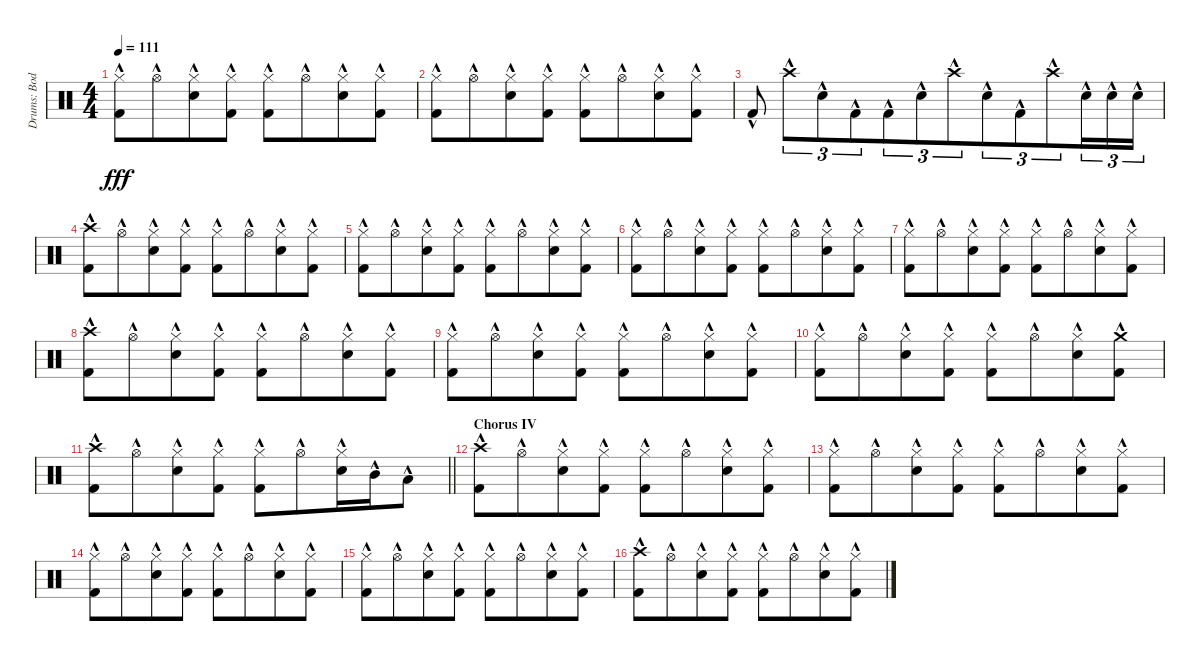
\track ("Drums: Bodo" "Drums: Bod") {instrument percussion}
\staff {score}
\articulation defaults
\ts (4 4)
\tempo 111
\clef neutral
\ks c
("Hi-Hat (closed)"{hac} "Kick (hit) 2"{hac}).8{dy fff} "Hi-Hat (open)"{hac}.8{beam merge} ("Hi-Hat (closed)"{hac} "Electric Snare (hit)"{hac}).8 ("Hi-Hat (closed)"{hac} "Kick (hit) 2"{hac}).8 ("Hi-Hat (closed)"{hac} "Kick (hit) 2"{hac}).8 "Hi-Hat (open)"{hac}.8{beam merge} ("Hi-Hat (closed)"{hac} "Electric Snare (hit)"{hac}).8 ("Hi-Hat (closed)"{hac} "Kick (hit) 2"{hac}).8 |
("Hi-Hat (closed)"{hac} "Kick (hit) 2"{hac}).8 "Hi-Hat (open)"{hac}.8{beam merge} ("Hi-Hat (closed)"{hac} "Electric Snare (hit)"{hac}).8 ("Hi-Hat (closed)"{hac} "Kick (hit) 2"{hac}).8 ("Hi-Hat (closed)"{hac} "Kick (hit) 2"{hac}).8 "Hi-Hat (open)"{hac}.8{beam merge} ("Hi-Hat (closed)"{hac} "Electric Snare (hit)"{hac}).8 ("Hi-Hat (closed)"{hac} "Kick (hit) 2"{hac}).8 |
"Kick (hit) 2"{hac}.8 "Crash high (hit)"{hac}.8{tu (3 2) beam merge} "Electric Snare (hit)"{hac}.8{tu (3 2)} "Kick (hit) 2"{hac}.8{tu (3 2) beam merge} "Kick (hit) 2"{hac}.8{tu (3 2) beam merge} "Electric Snare (hit)"{hac}.8{tu (3 2)} "Crash high (hit)"{hac}.8{tu (3 2) beam merge} "Electric Snare (hit)"{hac}.8{tu (3 2)} "Kick (hit) 2"{hac}.8{tu (3 2) beam merge} "Crash high (hit)"{hac}.8{tu (3 2) beam merge} "Electric Snare (hit)"{hac}.16{tu (3 2) beam merge} "Electric Snare (hit)"{hac}.16{tu (3 2) beam merge} "Electric Snare (hit)"{hac}.16{tu (3 2)} |
("Crash high (hit)"{hac} "Kick (hit) 2"{hac}).8 "Hi-Hat (open)"{hac}.8{beam merge} ("Hi-Hat (closed)"{hac} "Electric Snare (hit)"{hac}).8 ("Hi-Hat (closed)"{hac} "Kick (hit) 2"{hac}).8 ("Hi-Hat (closed)"{hac} "Kick (hit) 2"{hac}).8 "Hi-Hat (open)"{hac}.8{beam merge} ("Hi-Hat (closed)"{hac} "Electric Snare (hit)"{hac}).8 ("Hi-Hat (closed)"{hac} "Kick (hit) 2"{hac}).8 |
("Hi-Hat (closed)"{hac} "Kick (hit) 2"{hac}).8 "Hi-Hat (open)"{hac}.8{beam merge} ("Hi-Hat (closed)"{hac} "Electric Snare (hit)"{hac}).8 ("Hi-Hat (closed)"{hac} "Kick (hit) 2"{hac}).8 ("Hi-Hat (closed)"{hac} "Kick (hit) 2"{hac}).8 "Hi-Hat (open)"{hac}.8{beam merge} ("Hi-Hat (closed)"{hac} "Electric Snare (hit)"{hac}).8 ("Hi-Hat (closed)"{hac} "Kick (hit) 2"{hac}).8 |
("Hi-Hat (closed)"{hac} "Kick (hit) 2"{hac}).8 "Hi-Hat (open)"{hac}.8{beam merge} ("Hi-Hat (closed)"{hac} "Electric Snare (hit)"{hac}).8 ("Hi-Hat (closed)"{hac} "Kick (hit) 2"{hac}).8 ("Hi-Hat (closed)"{hac} "Kick (hit) 2"{hac}).8 "Hi-Hat (open)"{hac}.8{beam merge} ("Hi-Hat (closed)"{hac} "Electric Snare (hit)"{hac}).8 ("Hi-Hat (closed)"{hac} "Kick (hit) 2"{hac}).8 |
("Hi-Hat (closed)"{hac} "Kick (hit) 2"{hac}).8 "Hi-Hat (open)"{hac}.8{beam merge} ("Hi-Hat (closed)"{hac} "Electric Snare (hit)"{hac}).8 ("Hi-Hat (closed)"{hac} "Kick (hit) 2"{hac}).8 ("Hi-Hat (closed)"{hac} "Kick (hit) 2"{hac}).8 "Hi-Hat (open)"{hac}.8{beam merge} ("Hi-Hat (closed)"{hac} "Electric Snare (hit)"{hac}).8 ("Hi-Hat (closed)"{hac} "Kick (hit) 2"{hac}).8 |
("Crash high (hit)"{hac} "Kick (hit) 2"{hac}).8 "Hi-Hat (open)"{hac}.8{beam merge} ("Hi-Hat (closed)"{hac} "Electric Snare (hit)"{hac}).8 ("Hi-Hat (closed)"{hac} "Kick (hit) 2"{hac}).8 ("Hi-Hat (closed)"{hac} "Kick (hit) 2"{hac}).8 "Hi-Hat (open)"{hac}.8{beam merge} ("Hi-Hat (closed)"{hac} "Electric Snare (hit)"{hac}).8 ("Hi-Hat (closed)"{hac} "Kick (hit) 2"{hac}).8 |
("Hi-Hat (closed)"{hac} "Kick (hit) 2"{hac}).8 "Hi-Hat (open)"{hac}.8{beam merge} ("Hi-Hat (closed)"{hac} "Electric Snare (hit)"{hac}).8 ("Hi-Hat (closed)"{hac} "Kick (hit) 2"{hac}).8 ("Hi-Hat (closed)"{hac} "Kick (hit) 2"{hac}).8 "Hi-Hat (open)"{hac}.8{beam merge} ("Hi-Hat (closed)"{hac} "Electric Snare (hit)"{hac}).8 ("Hi-Hat (closed)"{hac} "Kick (hit) 2"{hac}).8 |
("Hi-Hat (closed)"{hac} "Kick (hit) 2"{hac}).8 "Hi-Hat (open)"{hac}.8{beam merge} ("Hi-Hat (closed)"{hac} "Electric Snare (hit)"{hac}).8 ("Hi-Hat (closed)"{hac} "Kick (hit) 2"{hac}).8 ("Hi-Hat (closed)"{hac} "Kick (hit) 2"{hac}).8 "Hi-Hat (open)"{hac}.8{beam merge} ("Hi-Hat (closed)"{hac} "Electric Snare (hit)"{hac}).8 ("Crash medium (hit)"{hac} "Kick (hit) 2"{hac}).8 |
\barLineRight lightlight
("Crash high (hit)"{hac} "Kick (hit) 2"{hac}).8 "Hi-Hat (open)"{hac}.8{beam merge} ("Hi-Hat (closed)"{hac} "Electric Snare (hit)"{hac}).8 ("Hi-Hat (closed)"{hac} "Kick (hit) 2"{hac}).8 ("Hi-Hat (closed)"{hac} "Kick (hit) 2"{hac}).8 "Hi-Hat (open)"{hac}.8{beam merge} ("Hi-Hat (closed)"{hac} "Electric Snare (hit)"{hac}).16 "Mid Tom (hit)"{hac}.16 "Low Tom (hit)"{hac}.8 |
\section ("" "Chorus IV")
("Crash high (hit)"{hac} "Kick (hit) 2"{hac}).8 "Hi-Hat (open)"{hac}.8{beam merge} ("Hi-Hat (closed)"{hac} "Electric Snare (hit)"{hac}).8 ("Hi-Hat (closed)"{hac} "Kick (hit) 2"{hac}).8 ("Hi-Hat (closed)"{hac} "Kick (hit) 2"{hac}).8 "Hi-Hat (open)"{hac}.8{beam merge} ("Hi-Hat (closed)"{hac} "Electric Snare (hit)"{hac}).8 ("Hi-Hat (closed)"{hac} "Kick (hit) 2"{hac}).8 |
("Hi-Hat (closed)"{hac} "Kick (hit) 2"{hac}).8 "Hi-Hat (open)"{hac}.8{beam merge} ("Hi-Hat (closed)"{hac} "Electric Snare (hit)"{hac}).8 ("Hi-Hat (closed)"{hac} "Kick (hit) 2"{hac}).8 ("Hi-Hat (closed)"{hac} "Kick (hit) 2"{hac}).8 "Hi-Hat (open)"{hac}.8{beam merge} ("Hi-Hat (closed)"{hac} "Electric Snare (hit)"{hac}).8 ("Hi-Hat (closed)"{hac} "Kick (hit) 2"{hac}).8 |
("Hi-Hat (closed)"{hac} "Kick (hit) 2"{hac}).8 "Hi-Hat (open)"{hac}.8{beam merge} ("Hi-Hat (closed)"{hac} "Electric Snare (hit)"{hac}).8 ("Hi-Hat (closed)"{hac} "Kick (hit) 2"{hac}).8 ("Hi-Hat (closed)"{hac} "Kick (hit) 2"{hac}).8 "Hi-Hat (open)"{hac}.8{beam merge} ("Hi-Hat (closed)"{hac} "Electric Snare (hit)"{hac}).8 ("Hi-Hat (closed)"{hac} "Kick (hit) 2"{hac}).8 |
("Hi-Hat (closed)"{hac} "Kick (hit) 2"{hac}).8 "Hi-Hat (open)"{hac}.8{beam merge} ("Hi-Hat (closed)"{hac} "Electric Snare (hit)"{hac}).8 ("Hi-Hat (closed)"{hac} "Kick (hit) 2"{hac}).8 ("Hi-Hat (closed)"{hac} "Kick (hit) 2"{hac}).8 "Hi-Hat (open)"{hac}.8{beam merge} ("Hi-Hat (closed)"{hac} "Electric Snare (hit)"{hac}).8 ("Hi-Hat (closed)"{hac} "Kick (hit) 2"{hac}).8 |
("Crash high (hit)"{hac} "Kick (hit) 2"{hac}).8 "Hi-Hat (open)"{hac}.8{beam merge} ("Hi-Hat (closed)"{hac} "Electric Snare (hit)"{hac}).8 ("Hi-Hat (closed)"{hac} "Kick (hit) 2"{hac}).8 ("Hi-Hat (closed)"{hac} "Kick (hit) 2"{hac}).8 "Hi-Hat (open)"{hac}.8{beam merge} ("Hi-Hat (closed)"{hac} "Electric Snare (hit)"{hac}).8 ("Hi-Hat (closed)"{hac} "Kick (hit) 2"{hac}).8
